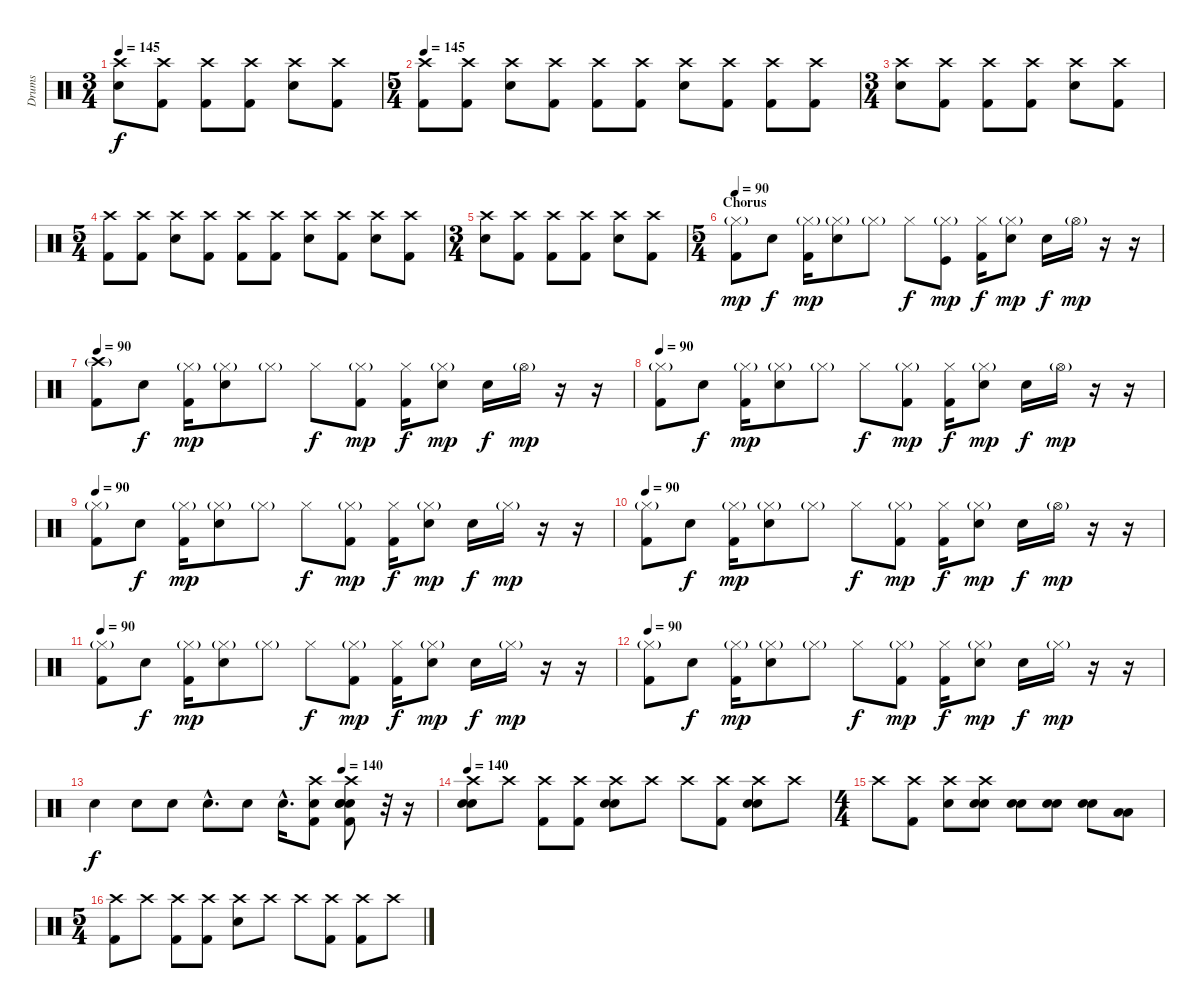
\track ("Drums" "Drums") {instrument percussion}
\staff {score}
\articulation defaults
\ts (3 4)
\tempo 145
\clef neutral
\ks c
("Crash high (hit)" "Electric Snare (hit)").8{dy f} ("Crash high (hit)" "Kick (hit) 2").8 ("Crash high (hit)" "Kick (hit) 2").8 ("Crash high (hit)" "Kick (hit) 2").8 ("Crash high (hit)" "Electric Snare (hit)").8 ("Crash high (hit)" "Kick (hit) 2").8 |
\ts (5 4)
\tempo 145
("Crash high (hit)" "Kick (hit) 2").8 ("Crash high (hit)" "Kick (hit) 2").8 ("Crash high (hit)" "Electric Snare (hit)").8 ("Crash high (hit)" "Kick (hit) 2").8 ("Crash high (hit)" "Kick (hit) 2").8 ("Crash high (hit)" "Kick (hit) 2").8 ("Crash high (hit)" "Electric Snare (hit)").8 ("Crash high (hit)" "Kick (hit) 2").8 ("Crash high (hit)" "Kick (hit) 2").8 ("Crash high (hit)" "Kick (hit) 2").8 |
\ts (3 4)
("Crash high (hit)" "Electric Snare (hit)").8 ("Crash high (hit)" "Kick (hit) 2").8 ("Crash high (hit)" "Kick (hit) 2").8 ("Crash high (hit)" "Kick (hit) 2").8 ("Crash high (hit)" "Electric Snare (hit)").8 ("Crash high (hit)" "Kick (hit) 2").8 |
\ts (5 4)
("Crash high (hit)" "Kick (hit) 2").8 ("Crash high (hit)" "Kick (hit) 2").8 ("Crash high (hit)" "Electric Snare (hit)").8 ("Crash high (hit)" "Kick (hit) 2").8 ("Crash high (hit)" "Kick (hit) 2").8 ("Crash high (hit)" "Kick (hit) 2").8 ("Crash high (hit)" "Electric Snare (hit)").8 ("Crash high (hit)" "Kick (hit) 2").8 ("Crash high (hit)" "Electric Snare (hit)").8 ("Crash high (hit)" "Kick (hit) 2").8 |
\ts (3 4)
("Crash high (hit)" "Electric Snare (hit)").8 ("Crash high (hit)" "Kick (hit) 2").8 ("Crash high (hit)" "Kick (hit) 2").8 ("Crash high (hit)" "Kick (hit) 2").8 ("Crash high (hit)" "Electric Snare (hit)").8 ("Crash high (hit)" "Kick (hit) 2").8 |
\ts (5 4)
\section ("" "Chorus")
\tempo 90
("Hi-Hat (closed)"{g} "Kick (hit) 2").8{dy mp} "Snare (hit)"{x}.8{dy f} ("Hi-Hat (closed)"{g} "Kick (hit) 2").16{dy mp} ("Hi-Hat (closed)"{g x} "Electric Snare (hit)").8 "Hi-Hat (closed)"{g}.8 "Hi-Hat (closed)"{x}.8{dy f} ("Hi-Hat (closed)"{g} "Kick (hit)").8{dy mp} ("Hi-Hat (closed)"{x} "Kick (hit) 2").16{dy f} ("Hi-Hat (closed)"{g} "Electric Snare (hit)").8{dy mp} "Snare (hit)"{x}.16{dy f} "Hi-Hat (open)"{g}.16{dy mp} r.16 r.16 |
\tempo 90
("Crash high (hit)"{g} "Kick (hit) 2").8 "Snare (hit)"{x}.8{dy f} ("Hi-Hat (closed)"{g} "Kick (hit) 2").16{dy mp} ("Hi-Hat (closed)"{g x} "Electric Snare (hit)").8 "Hi-Hat (closed)"{g}.8 "Hi-Hat (closed)"{x}.8{dy f} ("Hi-Hat (closed)"{g} "Kick (hit) 2").8{dy mp} ("Hi-Hat (closed)"{x} "Kick (hit) 2").16{dy f} ("Hi-Hat (closed)"{g} "Electric Snare (hit)").8{dy mp} "Snare (hit)"{x}.16{dy f} "Hi-Hat (open)"{g}.16{dy mp} r.16 r.16 |
\tempo 90
("Hi-Hat (closed)"{g} "Kick (hit) 2").8 "Snare (hit)"{x}.8{dy f} ("Hi-Hat (closed)"{g} "Kick (hit) 2").16{dy mp} ("Hi-Hat (closed)"{g x} "Electric Snare (hit)").8 "Hi-Hat (closed)"{g}.8 "Hi-Hat (closed)"{x}.8{dy f} ("Hi-Hat (closed)"{g} "Kick (hit) 2").8{dy mp} ("Hi-Hat (closed)"{x} "Kick (hit) 2").16{dy f} ("Hi-Hat (closed)"{g} "Electric Snare (hit)").8{dy mp} "Snare (hit)"{x}.16{dy f} "Hi-Hat (open)"{g}.16{dy mp} r.16 r.16 |
\tempo 90
("Hi-Hat (closed)"{g} "Kick (hit) 2").8 "Snare (hit)"{x}.8{dy f} ("Hi-Hat (closed)"{g} "Kick (hit) 2").16{dy mp} ("Hi-Hat (closed)"{g x} "Electric Snare (hit)").8 "Hi-Hat (closed)"{g}.8 "Hi-Hat (closed)"{x}.8{dy f} ("Hi-Hat (closed)"{g} "Kick (hit) 2").8{dy mp} ("Hi-Hat (closed)"{x} "Kick (hit) 2").16{dy f} ("Hi-Hat (closed)"{g} "Electric Snare (hit)").8{dy mp} "Snare (hit)"{x}.16{dy f} "Hi-Hat (closed)"{g}.16{dy mp} r.16 r.16 |
\tempo 90
("Hi-Hat (closed)"{g} "Kick (hit) 2").8 "Snare (hit)"{x}.8{dy f} ("Hi-Hat (closed)"{g} "Kick (hit) 2").16{dy mp} ("Hi-Hat (closed)"{g x} "Electric Snare (hit)").8 "Hi-Hat (closed)"{g}.8 "Hi-Hat (closed)"{x}.8{dy f} ("Hi-Hat (closed)"{g} "Kick (hit) 2").8{dy mp} ("Hi-Hat (closed)"{x} "Kick (hit) 2").16{dy f} ("Hi-Hat (closed)"{g} "Electric Snare (hit)").8{dy mp} "Snare (hit)"{x}.16{dy f} "Hi-Hat (open)"{g}.16{dy mp} r.16 r.16 |
\tempo 90
("Hi-Hat (closed)"{g} "Kick (hit) 2").8 "Snare (hit)"{x}.8{dy f} ("Hi-Hat (closed)"{g} "Kick (hit) 2").16{dy mp} ("Hi-Hat (closed)"{g x} "Electric Snare (hit)").8 "Hi-Hat (closed)"{g}.8 "Hi-Hat (closed)"{x}.8{dy f} ("Hi-Hat (closed)"{g} "Kick (hit) 2").8{dy mp} ("Hi-Hat (closed)"{x} "Kick (hit) 2").16{dy f} ("Hi-Hat (closed)"{g} "Electric Snare (hit)").8{dy mp} "Snare (hit)"{x}.16{dy f} "Hi-Hat (closed)"{g}.16{dy mp} r.16 r.16 |
\tempo 90
("Hi-Hat (closed)"{g} "Kick (hit) 2").8 "Snare (hit)"{x}.8{dy f} ("Hi-Hat (closed)"{g} "Kick (hit) 2").16{dy mp} ("Hi-Hat (closed)"{g x} "Electric Snare (hit)").8 "Hi-Hat (closed)"{g}.8 "Hi-Hat (closed)"{x}.8{dy f} ("Hi-Hat (closed)"{g} "Kick (hit) 2").8{dy mp} ("Hi-Hat (closed)"{x} "Kick (hit) 2").16{dy f} ("Hi-Hat (closed)"{g} "Electric Snare (hit)").8{dy mp} "Snare (hit)"{x}.16{dy f} "Hi-Hat (closed)"{g}.16{dy mp} r.16 r.16 |
\tempo (140 0.725)
"Snare (hit)"{x}.4{dy f} "Snare (hit)"{x}.8 "Snare (hit)"{x}.8 "Snare (hit)"{hac x}.8{d} "Snare (hit)"{x}.8 "Snare (hit)"{hac x}.16{d} ("Crash high (hit)" "Kick (hit) 2" "Snare (hit)"{x}).8 ("Crash high (hit)" "Kick (hit) 2" "Snare (hit) 2" "Electric Snare (hit)" "Snare (hit)"{x}).8 r.32 r.16 |
\tempo 140
("Crash high (hit)" "Electric Snare (hit)" "Snare (hit) 2").8 "Crash high (hit)"{x}.8 ("Crash high (hit)" "Kick (hit) 2"{x}).8 ("Crash high (hit)"{x} "Kick (hit) 2").8 ("Crash high (hit)" "Electric Snare (hit)" "Snare (hit) 2").8 "Crash high (hit)"{x}.8 "Crash high (hit)".8 ("Crash high (hit)"{x} "Kick (hit) 2").8 ("Crash high (hit)" "Snare (hit) 2" "Electric Snare (hit)").8 "Crash high (hit)"{x}.8 |
\ts (4 4)
"Crash high (hit)".8 ("Crash high (hit)"{x} "Kick (hit) 2").8 ("Crash high (hit)" "Electric Snare (hit)").8 ("Crash high (hit)"{x} "Electric Snare (hit)" "Snare (hit) 2").8 ("Electric Snare (hit)" "Snare (hit) 2").8 ("Electric Snare (hit)" "Snare (hit) 2").8 ("Electric Snare (hit)" "Snare (hit) 2").8 ("Low Tom (hit)" "Low Tom (hit)").8 |
\ts (5 4)
("Crash high (hit)" "Kick (hit) 2").8 "Crash high (hit)"{x}.8 ("Crash high (hit)" "Kick (hit) 2"{x}).8 ("Crash high (hit)"{x} "Kick (hit) 2").8 ("Crash high (hit)" "Electric Snare (hit)").8 "Crash high (hit)"{x}.8 "Crash high (hit)".8 ("Crash high (hit)"{x} "Kick (hit) 2").8 ("Crash high (hit)" "Kick (hit) 2").8 "Crash high (hit)"{x}.8
